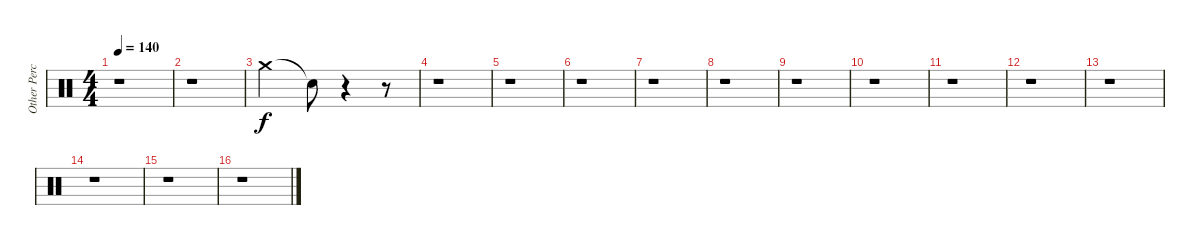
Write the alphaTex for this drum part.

\track ("Other Percussion" "Other Perc") {instrument percussion}
\staff {score}
\articulation defaults
\ts (4 4)
\tempo 140
\clef neutral
\ks c
r.1{dy f} |
r.1 |
"Crash medium (hit)".2 "Snare (hit)"{t}.8 r.4 r.8 |
r.1 |
r.1 |
r.1 |
r.1 |
r.1 |
r.1 |
r.1 |
r.1 |
r.1 |
r.1 |
r.1 |
r.1 |
r.1
